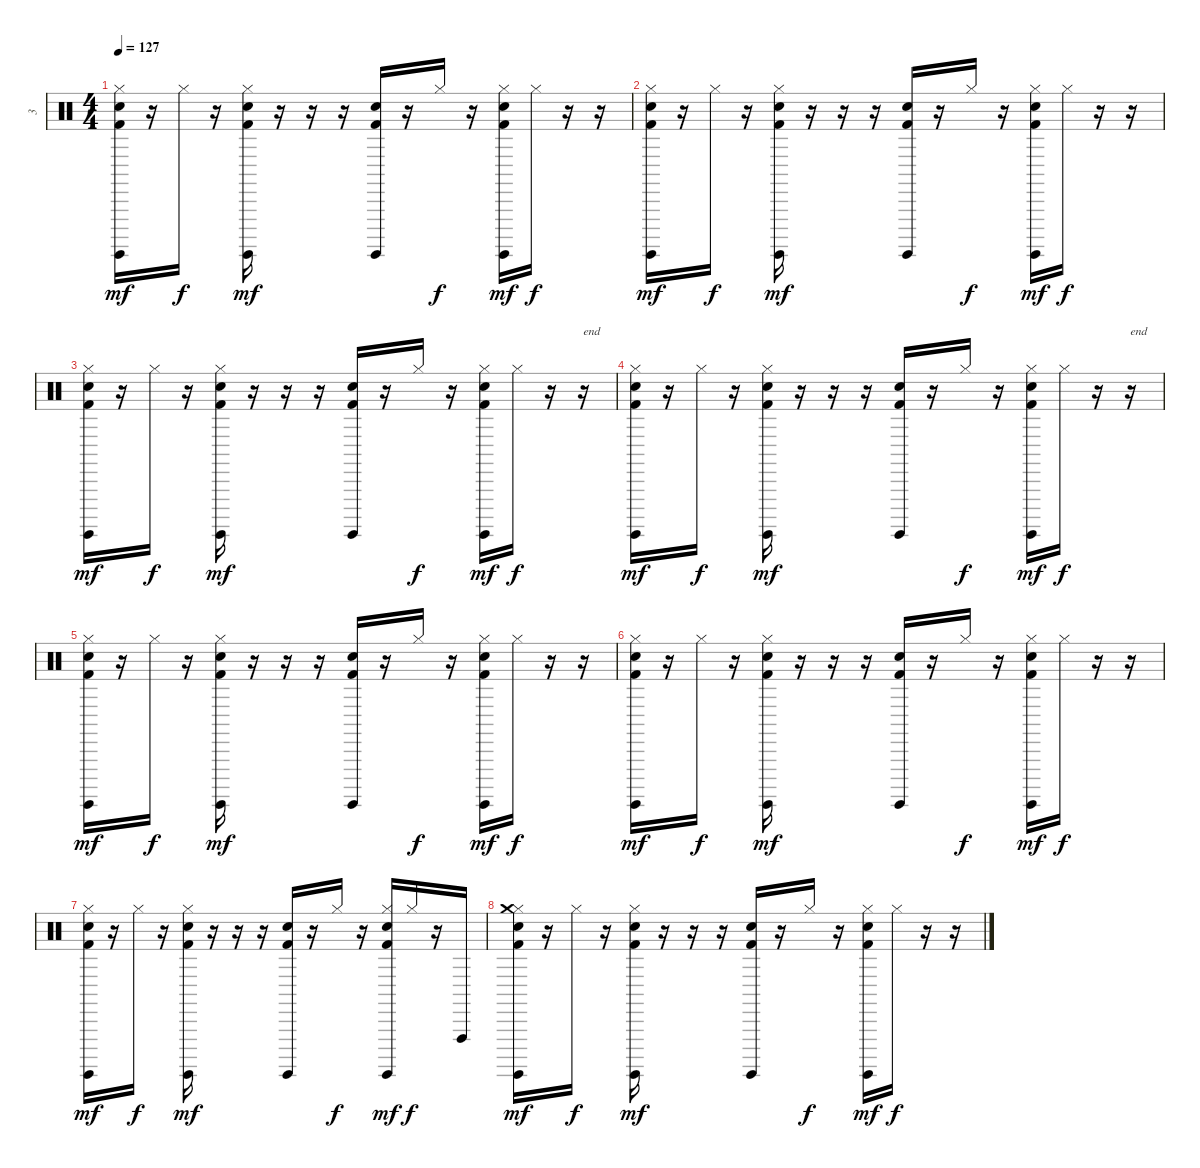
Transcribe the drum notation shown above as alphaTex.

\track ("3" "3") {instrument percussion}
\staff {score}
\articulation defaults
\ts (4 4)
\tempo 127
\clef neutral
\ks c
("Hi-Hat (closed)" "Surdo (hit)" "Kick (hit) 2" "Hand Clap (hit)").16{dy mf} r.16 "Hi-Hat (closed)".16{dy f} r.16 ("Hi-Hat (closed)" "Surdo (hit)" "Kick (hit) 2" "Hand Clap (hit)").16{dy mf} r.16 r.16 r.16 ("Surdo (hit)" "Kick (hit) 2" "Hand Clap (hit)").16 r.16 "Hi-Hat (closed)".16{dy f} r.16 ("Hi-Hat (closed)" "Surdo (hit)" "Kick (hit) 2" "Hand Clap (hit)").16{dy mf} "Hi-Hat (closed)".16{dy f} r.16 r.16 |
("Hi-Hat (closed)" "Surdo (hit)" "Kick (hit) 2" "Hand Clap (hit)").16{dy mf} r.16 "Hi-Hat (closed)".16{dy f} r.16 ("Hi-Hat (closed)" "Surdo (hit)" "Kick (hit) 2" "Hand Clap (hit)").16{dy mf} r.16 r.16 r.16 ("Surdo (hit)" "Kick (hit) 2" "Hand Clap (hit)").16 r.16 "Hi-Hat (closed)".16{dy f} r.16 ("Hi-Hat (closed)" "Surdo (hit)" "Kick (hit) 2" "Hand Clap (hit)").16{dy mf} "Hi-Hat (closed)".16{dy f} r.16 r.16 |
("Hi-Hat (closed)" "Surdo (hit)" "Kick (hit) 2" "Hand Clap (hit)").16{dy mf} r.16 "Hi-Hat (closed)".16{dy f} r.16 ("Hi-Hat (closed)" "Surdo (hit)" "Kick (hit) 2" "Hand Clap (hit)").16{dy mf} r.16 r.16 r.16 ("Surdo (hit)" "Kick (hit) 2" "Hand Clap (hit)").16 r.16 "Hi-Hat (closed)".16{dy f} r.16 ("Hi-Hat (closed)" "Surdo (hit)" "Kick (hit) 2" "Hand Clap (hit)").16{dy mf} "Hi-Hat (closed)".16{dy f} r.16 r.16{txt "end"} |
("Hi-Hat (closed)" "Surdo (hit)" "Kick (hit) 2" "Hand Clap (hit)").16{dy mf} r.16 "Hi-Hat (closed)".16{dy f} r.16 ("Hi-Hat (closed)" "Surdo (hit)" "Kick (hit) 2" "Hand Clap (hit)").16{dy mf} r.16 r.16 r.16 ("Surdo (hit)" "Kick (hit) 2" "Hand Clap (hit)").16 r.16 "Hi-Hat (closed)".16{dy f} r.16 ("Hi-Hat (closed)" "Surdo (hit)" "Kick (hit) 2" "Hand Clap (hit)").16{dy mf} "Hi-Hat (closed)".16{dy f} r.16 r.16{txt "end"} |
("Hi-Hat (closed)" "Surdo (hit)" "Kick (hit) 2" "Hand Clap (hit)").16{dy mf} r.16 "Hi-Hat (closed)".16{dy f} r.16 ("Hi-Hat (closed)" "Surdo (hit)" "Kick (hit) 2" "Hand Clap (hit)").16{dy mf} r.16 r.16 r.16 ("Surdo (hit)" "Kick (hit) 2" "Hand Clap (hit)").16 r.16 "Hi-Hat (closed)".16{dy f} r.16 ("Hi-Hat (closed)" "Surdo (hit)" "Kick (hit) 2" "Hand Clap (hit)").16{dy mf} "Hi-Hat (closed)".16{dy f} r.16 r.16 |
("Hi-Hat (closed)" "Surdo (hit)" "Kick (hit) 2" "Hand Clap (hit)").16{dy mf} r.16 "Hi-Hat (closed)".16{dy f} r.16 ("Hi-Hat (closed)" "Surdo (hit)" "Kick (hit) 2" "Hand Clap (hit)").16{dy mf} r.16 r.16 r.16 ("Surdo (hit)" "Kick (hit) 2" "Hand Clap (hit)").16 r.16 "Hi-Hat (closed)".16{dy f} r.16 ("Hi-Hat (closed)" "Surdo (hit)" "Kick (hit) 2" "Hand Clap (hit)").16{dy mf} "Hi-Hat (closed)".16{dy f} r.16 r.16 |
("Hi-Hat (closed)" "Surdo (hit)" "Kick (hit) 2" "Hand Clap (hit)").16{dy mf} r.16 "Hi-Hat (closed)".16{dy f} r.16 ("Hi-Hat (closed)" "Surdo (hit)" "Kick (hit) 2" "Hand Clap (hit)").16{dy mf} r.16 r.16 r.16 ("Surdo (hit)" "Kick (hit) 2" "Hand Clap (hit)").16 r.16 "Hi-Hat (closed)".16{dy f} r.16 ("Hi-Hat (closed)" "Surdo (hit)" "Kick (hit) 2" "Hand Clap (hit)").16{dy mf} "Hi-Hat (closed)".16{dy f} r.16 "Vibraslap (hit)".16 |
("Hi-Hat (closed)" "Crash medium (hit)" "Surdo (hit)" "Kick (hit) 2" "Hand Clap (hit)").16{dy mf} r.16 "Hi-Hat (closed)".16{dy f} r.16 ("Hi-Hat (closed)" "Surdo (hit)" "Kick (hit) 2" "Hand Clap (hit)").16{dy mf} r.16 r.16 r.16 ("Surdo (hit)" "Kick (hit) 2" "Hand Clap (hit)").16 r.16 "Hi-Hat (closed)".16{dy f} r.16 ("Hi-Hat (closed)" "Surdo (hit)" "Kick (hit) 2" "Hand Clap (hit)").16{dy mf} "Hi-Hat (closed)".16{dy f} r.16 r.16
